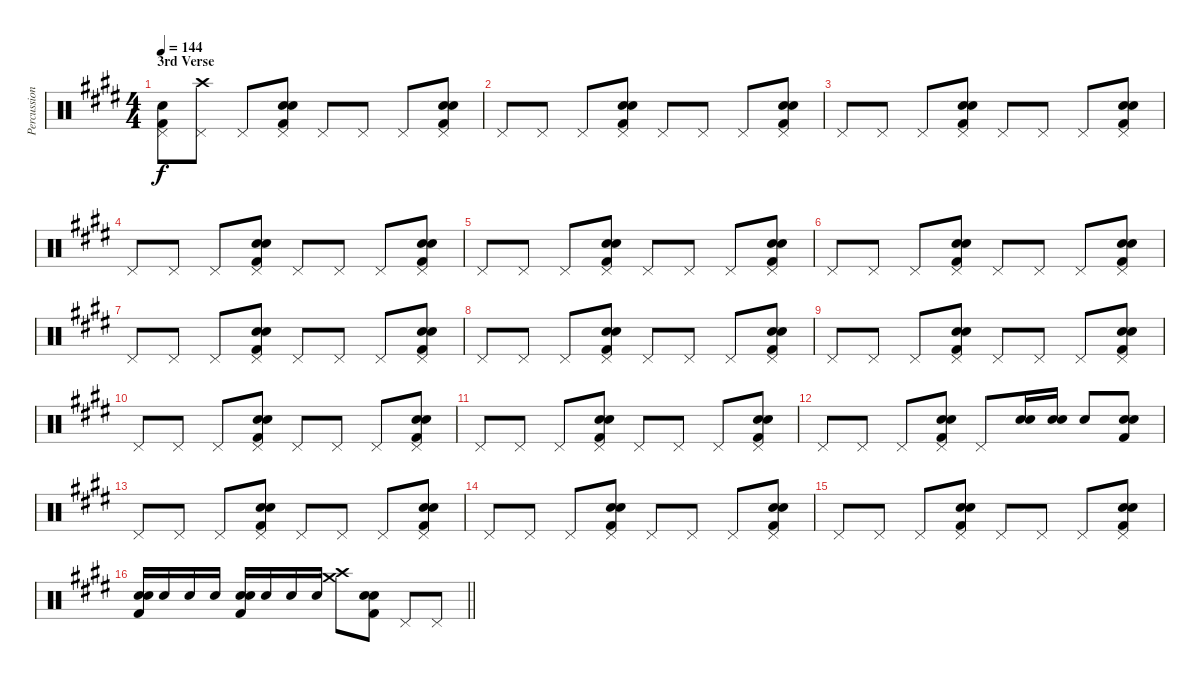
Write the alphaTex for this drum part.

\track ("Percussion" "Percussion") {instrument percussion}
\staff {score}
\articulation defaults
\ts (4 4)
\section ("" "3rd Verse")
\tempo 144
\clef neutral
\ks c#minor
("Pedal Hi-Hat (hit)" "Snare (hit) 2" "Kick (hit) 2").8{dy f} ("Pedal Hi-Hat (hit)" "Crash high (hit)").8 "Pedal Hi-Hat (hit)".8 ("Pedal Hi-Hat (hit)" "Snare (hit) 2" "Snare (hit) 2" "Kick (hit) 2").8 "Pedal Hi-Hat (hit)".8 "Pedal Hi-Hat (hit)".8 "Pedal Hi-Hat (hit)".8 ("Pedal Hi-Hat (hit)" "Snare (hit) 2" "Snare (hit) 2" "Kick (hit) 2").8 |
"Pedal Hi-Hat (hit)".8 "Pedal Hi-Hat (hit)".8 "Pedal Hi-Hat (hit)".8 ("Pedal Hi-Hat (hit)" "Snare (hit) 2" "Snare (hit) 2" "Kick (hit) 2").8 "Pedal Hi-Hat (hit)".8 "Pedal Hi-Hat (hit)".8 "Pedal Hi-Hat (hit)".8 ("Pedal Hi-Hat (hit)" "Snare (hit) 2" "Snare (hit) 2" "Kick (hit) 2").8 |
"Pedal Hi-Hat (hit)".8 "Pedal Hi-Hat (hit)".8 "Pedal Hi-Hat (hit)".8 ("Pedal Hi-Hat (hit)" "Snare (hit) 2" "Snare (hit) 2" "Kick (hit) 2").8 "Pedal Hi-Hat (hit)".8 "Pedal Hi-Hat (hit)".8 "Pedal Hi-Hat (hit)".8 ("Pedal Hi-Hat (hit)" "Snare (hit) 2" "Snare (hit) 2" "Kick (hit) 2").8 |
\ks e "Pedal Hi-Hat (hit)".8 "Pedal Hi-Hat (hit)".8 "Pedal Hi-Hat (hit)".8
("Pedal Hi-Hat (hit)" "Snare (hit) 2" "Snare (hit) 2" "Kick (hit) 2").8 "Pedal Hi-Hat (hit)".8 "Pedal Hi-Hat (hit)".8 "Pedal Hi-Hat (hit)".8 ("Pedal Hi-Hat (hit)" "Snare (hit) 2" "Snare (hit) 2" "Kick (hit) 2").8 |
\ks c#minor "Pedal Hi-Hat (hit)".8 "Pedal Hi-Hat (hit)".8 "Pedal Hi-Hat (hit)".8
("Pedal Hi-Hat (hit)" "Snare (hit) 2" "Snare (hit) 2" "Kick (hit) 2").8 "Pedal Hi-Hat (hit)".8 "Pedal Hi-Hat (hit)".8 "Pedal Hi-Hat (hit)".8 ("Pedal Hi-Hat (hit)" "Snare (hit) 2" "Snare (hit) 2" "Kick (hit) 2").8 |
"Pedal Hi-Hat (hit)".8 "Pedal Hi-Hat (hit)".8 "Pedal Hi-Hat (hit)".8 ("Pedal Hi-Hat (hit)" "Snare (hit) 2" "Snare (hit) 2" "Kick (hit) 2").8 "Pedal Hi-Hat (hit)".8 "Pedal Hi-Hat (hit)".8 "Pedal Hi-Hat (hit)".8 ("Pedal Hi-Hat (hit)" "Snare (hit) 2" "Snare (hit) 2" "Kick (hit) 2").8 |
\ks e "Pedal Hi-Hat (hit)".8 "Pedal Hi-Hat (hit)".8 "Pedal Hi-Hat (hit)".8
("Pedal Hi-Hat (hit)" "Snare (hit) 2" "Snare (hit) 2" "Kick (hit) 2").8 "Pedal Hi-Hat (hit)".8 "Pedal Hi-Hat (hit)".8 "Pedal Hi-Hat (hit)".8 ("Pedal Hi-Hat (hit)" "Snare (hit) 2" "Snare (hit) 2" "Kick (hit) 2").8 |
\ks c#minor "Pedal Hi-Hat (hit)".8 "Pedal Hi-Hat (hit)".8 "Pedal Hi-Hat (hit)".8
("Pedal Hi-Hat (hit)" "Snare (hit) 2" "Snare (hit) 2" "Kick (hit) 2").8 "Pedal Hi-Hat (hit)".8 "Pedal Hi-Hat (hit)".8 "Pedal Hi-Hat (hit)".8 ("Pedal Hi-Hat (hit)" "Snare (hit) 2" "Snare (hit) 2" "Kick (hit) 2").8 |
"Pedal Hi-Hat (hit)".8 "Pedal Hi-Hat (hit)".8 "Pedal Hi-Hat (hit)".8 ("Pedal Hi-Hat (hit)" "Snare (hit) 2" "Snare (hit) 2" "Kick (hit) 2").8 "Pedal Hi-Hat (hit)".8 "Pedal Hi-Hat (hit)".8 "Pedal Hi-Hat (hit)".8 ("Pedal Hi-Hat (hit)" "Snare (hit) 2" "Snare (hit) 2" "Kick (hit) 2").8 |
\ks e "Pedal Hi-Hat (hit)".8 "Pedal Hi-Hat (hit)".8 "Pedal Hi-Hat (hit)".8
("Pedal Hi-Hat (hit)" "Snare (hit) 2" "Snare (hit) 2" "Kick (hit) 2").8 "Pedal Hi-Hat (hit)".8 "Pedal Hi-Hat (hit)".8 "Pedal Hi-Hat (hit)".8 ("Pedal Hi-Hat (hit)" "Snare (hit) 2" "Snare (hit) 2" "Kick (hit) 2").8 |
\ks c#minor "Pedal Hi-Hat (hit)".8 "Pedal Hi-Hat (hit)".8 "Pedal Hi-Hat (hit)".8
("Pedal Hi-Hat (hit)" "Snare (hit) 2" "Snare (hit) 2" "Kick (hit) 2").8 "Pedal Hi-Hat (hit)".8 "Pedal Hi-Hat (hit)".8 "Pedal Hi-Hat (hit)".8 ("Pedal Hi-Hat (hit)" "Snare (hit) 2" "Snare (hit) 2" "Kick (hit) 2").8 |
\ks e "Pedal Hi-Hat (hit)".8 "Pedal Hi-Hat (hit)".8 "Pedal Hi-Hat (hit)".8
("Pedal Hi-Hat (hit)" "Snare (hit) 2" "Snare (hit) 2" "Kick (hit) 2").8 "Pedal Hi-Hat (hit)".8 ("Snare (hit) 2" "Snare (hit) 2").16 ("Snare (hit) 2" "Snare (hit) 2").16 "Snare (hit) 2".8 ("Snare (hit) 2" "Snare (hit) 2" "Kick (hit) 2").8 |
\ks c#minor "Pedal Hi-Hat (hit)".8 "Pedal Hi-Hat (hit)".8 "Pedal Hi-Hat (hit)".8
("Pedal Hi-Hat (hit)" "Snare (hit) 2" "Snare (hit) 2" "Kick (hit) 2").8 "Pedal Hi-Hat (hit)".8 "Pedal Hi-Hat (hit)".8 "Pedal Hi-Hat (hit)".8 ("Pedal Hi-Hat (hit)" "Snare (hit) 2" "Snare (hit) 2" "Kick (hit) 2").8 |
"Pedal Hi-Hat (hit)".8 "Pedal Hi-Hat (hit)".8 "Pedal Hi-Hat (hit)".8 ("Pedal Hi-Hat (hit)" "Snare (hit) 2" "Snare (hit) 2" "Kick (hit) 2").8 "Pedal Hi-Hat (hit)".8 "Pedal Hi-Hat (hit)".8 "Pedal Hi-Hat (hit)".8 ("Pedal Hi-Hat (hit)" "Snare (hit) 2" "Snare (hit) 2" "Kick (hit) 2").8 |
"Pedal Hi-Hat (hit)".8 "Pedal Hi-Hat (hit)".8 "Pedal Hi-Hat (hit)".8 ("Pedal Hi-Hat (hit)" "Snare (hit) 2" "Snare (hit) 2" "Kick (hit) 2").8 "Pedal Hi-Hat (hit)".8 "Pedal Hi-Hat (hit)".8 "Pedal Hi-Hat (hit)".8 ("Pedal Hi-Hat (hit)" "Snare (hit) 2" "Snare (hit) 2" "Kick (hit) 2").8 |
\barLineRight lightlight
("Snare (hit) 2" "Snare (hit) 2" "Kick (hit) 2").16 "Snare (hit) 2".16 "Snare (hit) 2".16 "Snare (hit) 2".16 ("Snare (hit) 2" "Snare (hit) 2" "Kick (hit) 2").16 "Snare (hit) 2".16 "Snare (hit) 2".16 "Snare (hit) 2".16 ("Crash high (hit)" "Crash medium (hit)").8 ("Snare (hit) 2" "Snare (hit) 2" "Kick (hit) 2").8 "Pedal Hi-Hat (hit)".8 "Pedal Hi-Hat (hit)".8
